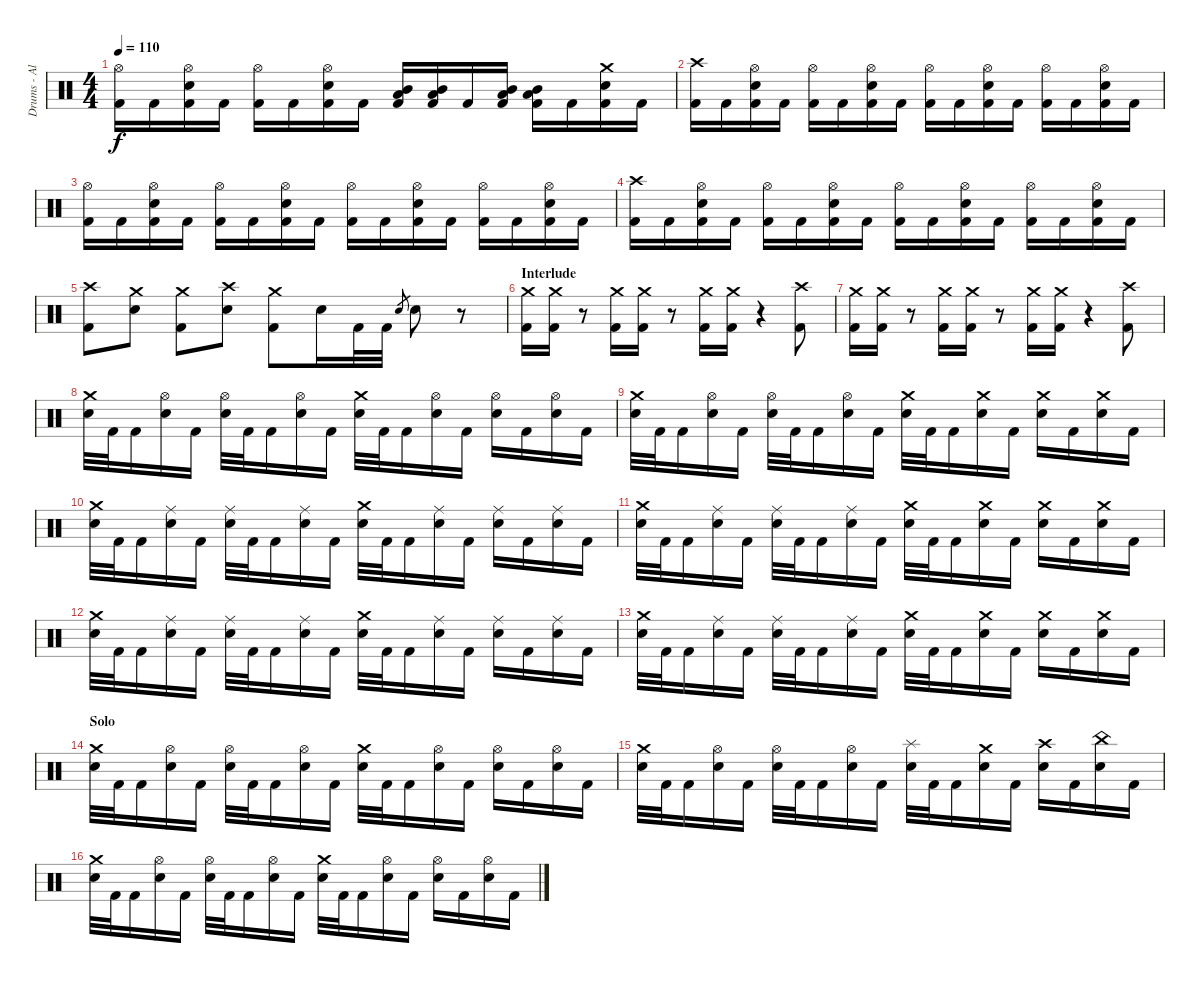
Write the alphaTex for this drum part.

\track ("Drums - Albin" "Drums - Al") {instrument percussion}
\staff {score}
\articulation defaults
\ts (4 4)
\tempo 110
\clef neutral
\ks c
("Hi-Hat (open)" "Kick (hit) 2").16{dy f} "Kick (hit) 2".16 ("Hi-Hat (open)" "Snare (hit) 2" "Kick (hit) 2").16 "Kick (hit) 2".16 ("Hi-Hat (open)" "Kick (hit) 2").16 "Kick (hit) 2".16 ("Hi-Hat (open)" "Snare (hit) 2" "Kick (hit) 2").16 "Kick (hit) 2".16 ("Mid Tom (hit)" "Low Tom (hit)" "Kick (hit) 2").16 ("Mid Tom (hit)" "Low Tom (hit)" "Kick (hit) 2").16 "Kick (hit) 2".16 ("Mid Tom (hit)" "Low Tom (hit)" "Kick (hit) 2").16 ("Mid Tom (hit)" "Low Tom (hit)" "Kick (hit) 2").16 "Kick (hit) 2".16 ("Crash medium (hit)" "Snare (hit) 2" "Kick (hit) 2").16 "Kick (hit) 2".16 |
("Crash high (hit)" "Kick (hit) 2").16 "Kick (hit) 2".16 ("Hi-Hat (open)" "Snare (hit) 2" "Kick (hit) 2").16 "Kick (hit) 2".16 ("Hi-Hat (open)" "Kick (hit) 2").16 "Kick (hit) 2".16 ("Hi-Hat (open)" "Snare (hit) 2" "Kick (hit) 2").16 "Kick (hit) 2".16 ("Hi-Hat (open)" "Kick (hit) 2").16 "Kick (hit) 2".16 ("Hi-Hat (open)" "Snare (hit) 2" "Kick (hit) 2").16 "Kick (hit) 2".16 ("Hi-Hat (open)" "Kick (hit) 2").16 "Kick (hit) 2".16 ("Hi-Hat (open)" "Snare (hit) 2" "Kick (hit) 2").16 "Kick (hit) 2".16 |
("Hi-Hat (open)" "Kick (hit) 2").16 "Kick (hit) 2".16 ("Hi-Hat (open)" "Snare (hit) 2" "Kick (hit) 2").16 "Kick (hit) 2".16 ("Hi-Hat (open)" "Kick (hit) 2").16 "Kick (hit) 2".16 ("Hi-Hat (open)" "Snare (hit) 2" "Kick (hit) 2").16 "Kick (hit) 2".16 ("Hi-Hat (open)" "Kick (hit) 2").16 "Kick (hit) 2".16 ("Hi-Hat (open)" "Snare (hit) 2" "Kick (hit) 2").16 "Kick (hit) 2".16 ("Hi-Hat (open)" "Kick (hit) 2").16 "Kick (hit) 2".16 ("Hi-Hat (open)" "Snare (hit) 2" "Kick (hit) 2").16 "Kick (hit) 2".16 |
("Crash high (hit)" "Kick (hit) 2").16 "Kick (hit) 2".16 ("Hi-Hat (open)" "Snare (hit) 2" "Kick (hit) 2").16 "Kick (hit) 2".16 ("Hi-Hat (open)" "Kick (hit) 2").16 "Kick (hit) 2".16 ("Hi-Hat (open)" "Snare (hit) 2" "Kick (hit) 2").16 "Kick (hit) 2".16 ("Hi-Hat (open)" "Kick (hit) 2").16 "Kick (hit) 2".16 ("Hi-Hat (open)" "Snare (hit) 2" "Kick (hit) 2").16 "Kick (hit) 2".16 ("Hi-Hat (open)" "Kick (hit) 2").16 "Kick (hit) 2".16 ("Hi-Hat (open)" "Snare (hit) 2" "Kick (hit) 2").16 "Kick (hit) 2".16 |
("Crash high (hit)" "Kick (hit) 2").8 ("Crash medium (hit)" "Snare (hit) 2").8 ("Crash medium (hit)" "Kick (hit) 2").8 ("Crash high (hit)" "Snare (hit) 2").8 ("Crash medium (hit)" "Kick (hit) 2").8 "Snare (hit) 2".16 "Kick (hit) 2".32 "Kick (hit) 2".32 "Snare (hit) 2".8{gr} "Snare (hit) 2".8 r.8 |
\section ("" "Interlude")
("Crash medium (hit)" "Kick (hit) 2").16 ("Crash medium (hit)" "Kick (hit) 2").16 r.8 ("Crash medium (hit)" "Kick (hit) 2").16 ("Crash medium (hit)" "Kick (hit) 2").16 r.8 ("Crash medium (hit)" "Kick (hit) 2").16 ("Crash medium (hit)" "Kick (hit) 2").16 r.4 ("Crash high (hit)" "Kick (hit) 2").8 |
("Crash medium (hit)" "Kick (hit) 2").16 ("Crash medium (hit)" "Kick (hit) 2").16 r.8 ("Crash medium (hit)" "Kick (hit) 2").16 ("Crash medium (hit)" "Kick (hit) 2").16 r.8 ("Crash medium (hit)" "Kick (hit) 2").16 ("Crash medium (hit)" "Kick (hit) 2").16 r.4 ("Crash high (hit)" "Kick (hit) 2").8 |
("Crash medium (hit)" "Snare (hit) 2").32 "Kick (hit) 2".32 "Kick (hit) 2".16 ("Hi-Hat (open)" "Snare (hit) 2").16 "Kick (hit) 2".16 ("Hi-Hat (open)" "Snare (hit) 2").32 "Kick (hit) 2".32 "Kick (hit) 2".16 ("Hi-Hat (open)" "Snare (hit) 2").16 "Kick (hit) 2".16 ("Crash medium (hit)" "Snare (hit) 2").32 "Kick (hit) 2".32 "Kick (hit) 2".16 ("Hi-Hat (open)" "Snare (hit) 2").16 "Kick (hit) 2".16 ("Hi-Hat (open)" "Snare (hit) 2").16 "Kick (hit) 2".16 ("Hi-Hat (open)" "Snare (hit) 2").16 "Kick (hit) 2".16 |
("Crash medium (hit)" "Snare (hit) 2").32 "Kick (hit) 2".32 "Kick (hit) 2".16 ("Hi-Hat (open)" "Snare (hit) 2").16 "Kick (hit) 2".16 ("Hi-Hat (open)" "Snare (hit) 2").32 "Kick (hit) 2".32 "Kick (hit) 2".16 ("Hi-Hat (open)" "Snare (hit) 2").16 "Kick (hit) 2".16 ("Crash medium (hit)" "Snare (hit) 2").32 "Kick (hit) 2".32 "Kick (hit) 2".16 ("Crash medium (hit)" "Snare (hit) 2").16 "Kick (hit) 2".16 ("Crash medium (hit)" "Snare (hit) 2").16 "Kick (hit) 2".16 ("Crash medium (hit)" "Snare (hit) 2").16 "Kick (hit) 2".16 |
("Crash medium (hit)" "Snare (hit) 2").32 "Kick (hit) 2".32 "Kick (hit) 2".16 ("Ride (middle)" "Snare (hit) 2").16 "Kick (hit) 2".16 ("Ride (middle)" "Snare (hit) 2").32 "Kick (hit) 2".32 "Kick (hit) 2".16 ("Ride (middle)" "Snare (hit) 2").16 "Kick (hit) 2".16 ("Crash medium (hit)" "Snare (hit) 2").32 "Kick (hit) 2".32 "Kick (hit) 2".16 ("Ride (middle)" "Snare (hit) 2").16 "Kick (hit) 2".16 ("Ride (middle)" "Snare (hit) 2").16 "Kick (hit) 2".16 ("Ride (middle)" "Snare (hit) 2").16 "Kick (hit) 2".16 |
("Crash medium (hit)" "Snare (hit) 2").32 "Kick (hit) 2".32 "Kick (hit) 2".16 ("Ride (middle)" "Snare (hit) 2").16 "Kick (hit) 2".16 ("Ride (middle)" "Snare (hit) 2").32 "Kick (hit) 2".32 "Kick (hit) 2".16 ("Ride (middle)" "Snare (hit) 2").16 "Kick (hit) 2".16 ("Crash medium (hit)" "Snare (hit) 2").32 "Kick (hit) 2".32 "Kick (hit) 2".16 ("Crash medium (hit)" "Snare (hit) 2").16 "Kick (hit) 2".16 ("Crash medium (hit)" "Snare (hit) 2").16 "Kick (hit) 2".16 ("Crash medium (hit)" "Snare (hit) 2").16 "Kick (hit) 2".16 |
("Crash medium (hit)" "Snare (hit) 2").32 "Kick (hit) 2".32 "Kick (hit) 2".16 ("Ride (middle)" "Snare (hit) 2").16 "Kick (hit) 2".16 ("Ride (middle)" "Snare (hit) 2").32 "Kick (hit) 2".32 "Kick (hit) 2".16 ("Ride (middle)" "Snare (hit) 2").16 "Kick (hit) 2".16 ("Crash medium (hit)" "Snare (hit) 2").32 "Kick (hit) 2".32 "Kick (hit) 2".16 ("Ride (middle)" "Snare (hit) 2").16 "Kick (hit) 2".16 ("Ride (middle)" "Snare (hit) 2").16 "Kick (hit) 2".16 ("Ride (middle)" "Snare (hit) 2").16 "Kick (hit) 2".16 |
("Crash medium (hit)" "Snare (hit) 2").32 "Kick (hit) 2".32 "Kick (hit) 2".16 ("Ride (middle)" "Snare (hit) 2").16 "Kick (hit) 2".16 ("Ride (middle)" "Snare (hit) 2").32 "Kick (hit) 2".32 "Kick (hit) 2".16 ("Ride (middle)" "Snare (hit) 2").16 "Kick (hit) 2".16 ("Crash medium (hit)" "Snare (hit) 2").32 "Kick (hit) 2".32 "Kick (hit) 2".16 ("Crash medium (hit)" "Snare (hit) 2").16 "Kick (hit) 2".16 ("Crash medium (hit)" "Snare (hit) 2").16 "Kick (hit) 2".16 ("Crash medium (hit)" "Snare (hit) 2").16 "Kick (hit) 2".16 |
\section ("" "Solo")
("Crash medium (hit)" "Snare (hit) 2").32 "Kick (hit) 2".32 "Kick (hit) 2".16 ("Hi-Hat (open)" "Snare (hit) 2").16 "Kick (hit) 2".16 ("Hi-Hat (open)" "Snare (hit) 2").32 "Kick (hit) 2".32 "Kick (hit) 2".16 ("Hi-Hat (open)" "Snare (hit) 2").16 "Kick (hit) 2".16 ("Crash medium (hit)" "Snare (hit) 2").32 "Kick (hit) 2".32 "Kick (hit) 2".16 ("Hi-Hat (open)" "Snare (hit) 2").16 "Kick (hit) 2".16 ("Hi-Hat (open)" "Snare (hit) 2").16 "Kick (hit) 2".16 ("Hi-Hat (open)" "Snare (hit) 2").16 "Kick (hit) 2".16 |
("Crash medium (hit)" "Snare (hit) 2").32 "Kick (hit) 2".32 "Kick (hit) 2".16 ("Hi-Hat (open)" "Snare (hit) 2").16 "Kick (hit) 2".16 ("Hi-Hat (open)" "Snare (hit) 2").32 "Kick (hit) 2".32 "Kick (hit) 2".16 ("Hi-Hat (open)" "Snare (hit) 2").16 "Kick (hit) 2".16 ("Splash (hit)" "Snare (hit) 2").32 "Kick (hit) 2".32 "Kick (hit) 2".16 ("Crash medium (hit)" "Snare (hit) 2").16 "Kick (hit) 2".16 ("Crash high (hit)" "Snare (hit) 2").16 "Kick (hit) 2".16 ("China (hit)" "Snare (hit) 2").16 "Kick (hit) 2".16 |
("Crash medium (hit)" "Snare (hit) 2").32 "Kick (hit) 2".32 "Kick (hit) 2".16 ("Hi-Hat (open)" "Snare (hit) 2").16 "Kick (hit) 2".16 ("Hi-Hat (open)" "Snare (hit) 2").32 "Kick (hit) 2".32 "Kick (hit) 2".16 ("Hi-Hat (open)" "Snare (hit) 2").16 "Kick (hit) 2".16 ("Crash medium (hit)" "Snare (hit) 2").32 "Kick (hit) 2".32 "Kick (hit) 2".16 ("Hi-Hat (open)" "Snare (hit) 2").16 "Kick (hit) 2".16 ("Hi-Hat (open)" "Snare (hit) 2").16 "Kick (hit) 2".16 ("Hi-Hat (open)" "Snare (hit) 2").16 "Kick (hit) 2".16
